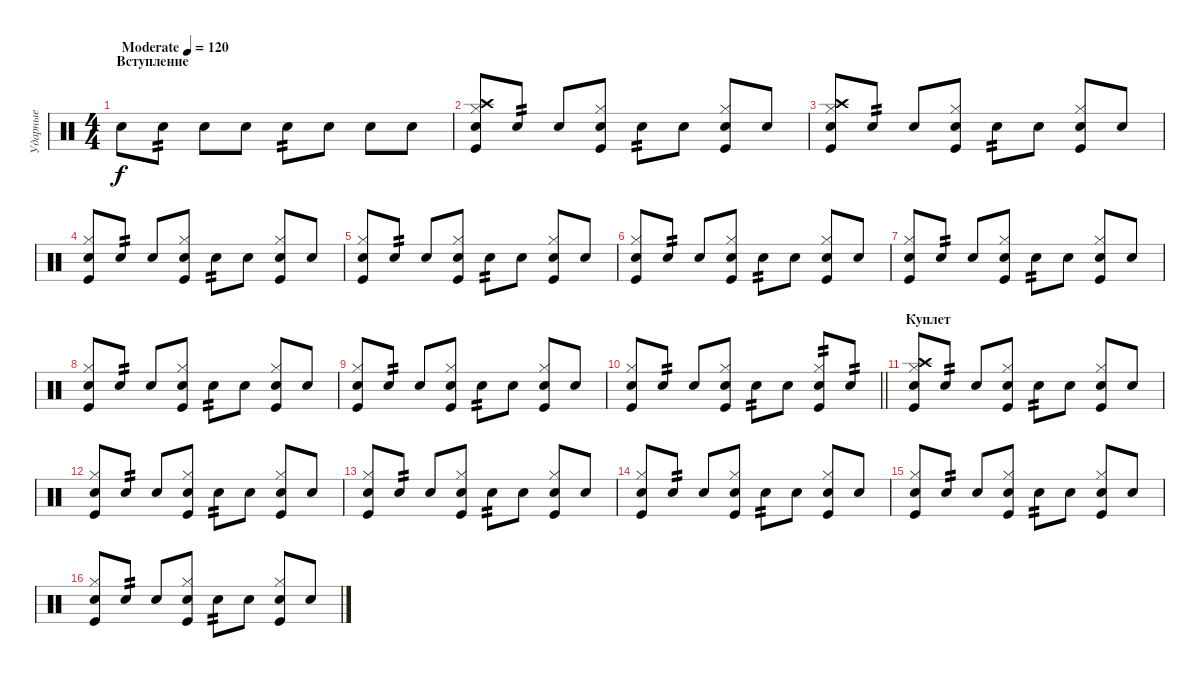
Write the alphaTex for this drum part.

\track ("Ударные" "Ударные") {instrument percussion}
\staff {score}
\articulation defaults
\ts (4 4)
\section ("" "Вступление")
\tempo (120 "Moderate")
\clef neutral
\ks c "Electric Snare (hit)".8{dy f} "Electric Snare (hit)".8{tp 2} "Electric Snare (hit)".8 "Electric Snare (hit)".8 "Electric Snare (hit)".8{tp 2} "Electric Snare (hit)".8 "Electric Snare (hit)".8 "Electric Snare (hit)".8
|
("Hi-Hat (closed)" "Crash high (hit)" "Electric Snare (hit)" "Kick (hit)").8 "Electric Snare (hit)".8{tp 2} "Electric Snare (hit)".8 ("Hi-Hat (closed)" "Electric Snare (hit)" "Kick (hit)").8 "Electric Snare (hit)".8{tp 2} "Electric Snare (hit)".8 ("Hi-Hat (closed)" "Electric Snare (hit)" "Kick (hit)").8 "Electric Snare (hit)".8 |
("Hi-Hat (closed)" "Crash high (hit)" "Electric Snare (hit)" "Kick (hit)").8 "Electric Snare (hit)".8{tp 2} "Electric Snare (hit)".8 ("Hi-Hat (closed)" "Electric Snare (hit)" "Kick (hit)").8 "Electric Snare (hit)".8{tp 2} "Electric Snare (hit)".8 ("Hi-Hat (closed)" "Electric Snare (hit)" "Kick (hit)").8 "Electric Snare (hit)".8 |
("Hi-Hat (closed)" "Electric Snare (hit)" "Kick (hit)").8 "Electric Snare (hit)".8{tp 2} "Electric Snare (hit)".8 ("Hi-Hat (closed)" "Electric Snare (hit)" "Kick (hit)").8 "Electric Snare (hit)".8{tp 2} "Electric Snare (hit)".8 ("Hi-Hat (closed)" "Electric Snare (hit)" "Kick (hit)").8 "Electric Snare (hit)".8 |
("Hi-Hat (closed)" "Electric Snare (hit)" "Kick (hit)").8 "Electric Snare (hit)".8{tp 2} "Electric Snare (hit)".8 ("Hi-Hat (closed)" "Electric Snare (hit)" "Kick (hit)").8 "Electric Snare (hit)".8{tp 2} "Electric Snare (hit)".8 ("Hi-Hat (closed)" "Electric Snare (hit)" "Kick (hit)").8 "Electric Snare (hit)".8 |
("Hi-Hat (closed)" "Electric Snare (hit)" "Kick (hit)").8 "Electric Snare (hit)".8{tp 2} "Electric Snare (hit)".8 ("Hi-Hat (closed)" "Electric Snare (hit)" "Kick (hit)").8 "Electric Snare (hit)".8{tp 2} "Electric Snare (hit)".8 ("Hi-Hat (closed)" "Electric Snare (hit)" "Kick (hit)").8 "Electric Snare (hit)".8 |
("Hi-Hat (closed)" "Electric Snare (hit)" "Kick (hit)").8 "Electric Snare (hit)".8{tp 2} "Electric Snare (hit)".8 ("Hi-Hat (closed)" "Electric Snare (hit)" "Kick (hit)").8 "Electric Snare (hit)".8{tp 2} "Electric Snare (hit)".8 ("Hi-Hat (closed)" "Electric Snare (hit)" "Kick (hit)").8 "Electric Snare (hit)".8 |
("Hi-Hat (closed)" "Electric Snare (hit)" "Kick (hit)").8 "Electric Snare (hit)".8{tp 2} "Electric Snare (hit)".8 ("Hi-Hat (closed)" "Electric Snare (hit)" "Kick (hit)").8 "Electric Snare (hit)".8{tp 2} "Electric Snare (hit)".8 ("Hi-Hat (closed)" "Electric Snare (hit)" "Kick (hit)").8 "Electric Snare (hit)".8 |
("Hi-Hat (closed)" "Electric Snare (hit)" "Kick (hit)").8 "Electric Snare (hit)".8{tp 2} "Electric Snare (hit)".8 ("Hi-Hat (closed)" "Electric Snare (hit)" "Kick (hit)").8 "Electric Snare (hit)".8{tp 2} "Electric Snare (hit)".8 ("Hi-Hat (closed)" "Electric Snare (hit)" "Kick (hit)").8 "Electric Snare (hit)".8 |
\barLineRight lightlight
("Hi-Hat (closed)" "Electric Snare (hit)" "Kick (hit)").8 "Electric Snare (hit)".8{tp 2} "Electric Snare (hit)".8 ("Hi-Hat (closed)" "Electric Snare (hit)" "Kick (hit)").8 "Electric Snare (hit)".8{tp 2} "Electric Snare (hit)".8 ("Hi-Hat (closed)" "Electric Snare (hit)" "Kick (hit)").8{tp 2} "Electric Snare (hit)".8{tp 2} |
\section ("" "Куплет")
("Hi-Hat (closed)" "Crash high (hit)" "Electric Snare (hit)" "Kick (hit)").8 "Electric Snare (hit)".8{tp 2} "Electric Snare (hit)".8 ("Hi-Hat (closed)" "Electric Snare (hit)" "Kick (hit)").8 "Electric Snare (hit)".8{tp 2} "Electric Snare (hit)".8 ("Hi-Hat (closed)" "Electric Snare (hit)" "Kick (hit)").8 "Electric Snare (hit)".8 |
("Hi-Hat (closed)" "Electric Snare (hit)" "Kick (hit)").8 "Electric Snare (hit)".8{tp 2} "Electric Snare (hit)".8 ("Hi-Hat (closed)" "Electric Snare (hit)" "Kick (hit)").8 "Electric Snare (hit)".8{tp 2} "Electric Snare (hit)".8 ("Hi-Hat (closed)" "Electric Snare (hit)" "Kick (hit)").8 "Electric Snare (hit)".8 |
("Hi-Hat (closed)" "Electric Snare (hit)" "Kick (hit)").8 "Electric Snare (hit)".8{tp 2} "Electric Snare (hit)".8 ("Hi-Hat (closed)" "Electric Snare (hit)" "Kick (hit)").8 "Electric Snare (hit)".8{tp 2} "Electric Snare (hit)".8 ("Hi-Hat (closed)" "Electric Snare (hit)" "Kick (hit)").8 "Electric Snare (hit)".8 |
("Hi-Hat (closed)" "Electric Snare (hit)" "Kick (hit)").8 "Electric Snare (hit)".8{tp 2} "Electric Snare (hit)".8 ("Hi-Hat (closed)" "Electric Snare (hit)" "Kick (hit)").8 "Electric Snare (hit)".8{tp 2} "Electric Snare (hit)".8 ("Hi-Hat (closed)" "Electric Snare (hit)" "Kick (hit)").8 "Electric Snare (hit)".8 |
("Hi-Hat (closed)" "Electric Snare (hit)" "Kick (hit)").8 "Electric Snare (hit)".8{tp 2} "Electric Snare (hit)".8 ("Hi-Hat (closed)" "Electric Snare (hit)" "Kick (hit)").8 "Electric Snare (hit)".8{tp 2} "Electric Snare (hit)".8 ("Hi-Hat (closed)" "Electric Snare (hit)" "Kick (hit)").8 "Electric Snare (hit)".8 |
("Hi-Hat (closed)" "Electric Snare (hit)" "Kick (hit)").8 "Electric Snare (hit)".8{tp 2} "Electric Snare (hit)".8 ("Hi-Hat (closed)" "Electric Snare (hit)" "Kick (hit)").8 "Electric Snare (hit)".8{tp 2} "Electric Snare (hit)".8 ("Hi-Hat (closed)" "Electric Snare (hit)" "Kick (hit)").8 "Electric Snare (hit)".8
